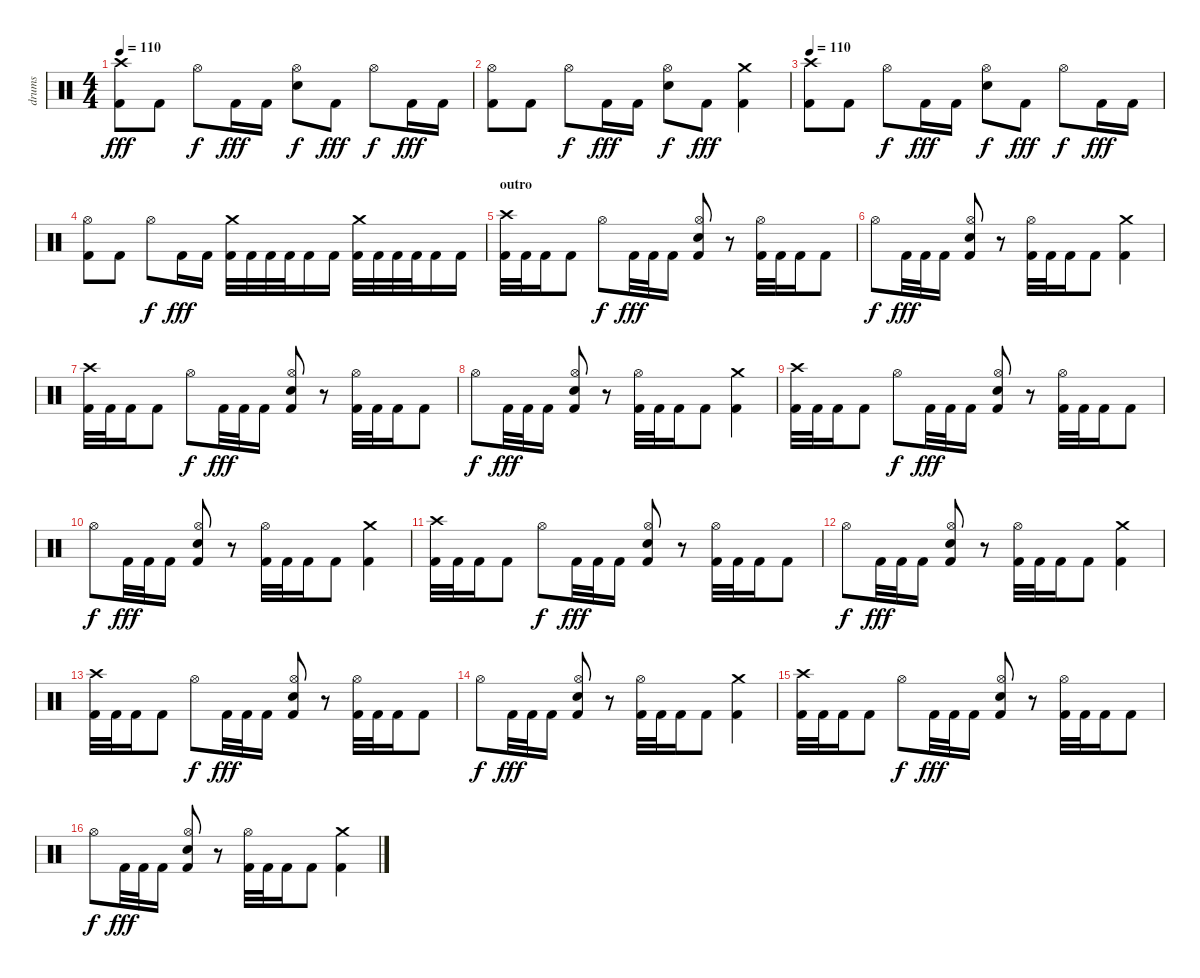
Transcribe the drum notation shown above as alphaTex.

\track ("drums" "drums") {instrument percussion}
\staff {score}
\articulation defaults
\ts (4 4)
\tempo 110
\clef neutral
\ks c
("Crash high (hit)" "Kick (hit) 2").8{dy fff} "Kick (hit) 2".8 "Hi-Hat (open)".8{dy f} "Kick (hit) 2".16{dy fff} "Kick (hit) 2".16 ("Hi-Hat (open)" "Snare (hit) 2").8{dy f} "Kick (hit) 2".8{dy fff} "Hi-Hat (open)".8{dy f} "Kick (hit) 2".16{dy fff} "Kick (hit) 2".16 |
("Hi-Hat (open)" "Kick (hit) 2").8 "Kick (hit) 2".8 "Hi-Hat (open)".8{dy f} "Kick (hit) 2".16{dy fff} "Kick (hit) 2".16 ("Hi-Hat (open)" "Snare (hit) 2").8{dy f} "Kick (hit) 2".8{dy fff} ("Crash medium (hit)" "Kick (hit) 2").4 |
\tempo 110
("Crash high (hit)" "Kick (hit) 2").8 "Kick (hit) 2".8 "Hi-Hat (open)".8{dy f} "Kick (hit) 2".16{dy fff} "Kick (hit) 2".16 ("Hi-Hat (open)" "Snare (hit) 2").8{dy f} "Kick (hit) 2".8{dy fff} "Hi-Hat (open)".8{dy f} "Kick (hit) 2".16{dy fff} "Kick (hit) 2".16 |
("Hi-Hat (open)" "Kick (hit) 2").8 "Kick (hit) 2".8 "Hi-Hat (open)".8{dy f} "Kick (hit) 2".16{dy fff} "Kick (hit) 2".16 ("Crash medium (hit)" "Kick (hit) 2").32 "Kick (hit) 2".32 "Kick (hit) 2".32 "Kick (hit) 2".32 "Kick (hit) 2".16 "Kick (hit) 2".16 ("Crash medium (hit)" "Kick (hit) 2").32 "Kick (hit) 2".32 "Kick (hit) 2".32 "Kick (hit) 2".32 "Kick (hit) 2".16 "Kick (hit) 2".16 |
\section ("" "outro")
("Crash high (hit)" "Kick (hit) 2").32 "Kick (hit) 2".32 "Kick (hit) 2".16 "Kick (hit) 2".8 "Hi-Hat (open)".8{dy f} "Kick (hit) 2".32{dy fff} "Kick (hit) 2".32 "Kick (hit) 2".16 ("Hi-Hat (open)" "Snare (hit) 2" "Kick (hit) 2").8 r.8 ("Hi-Hat (open)" "Kick (hit) 2").32 "Kick (hit) 2".32 "Kick (hit) 2".16 "Kick (hit) 2".8 |
"Hi-Hat (open)".8{dy f} "Kick (hit) 2".32{dy fff} "Kick (hit) 2".32 "Kick (hit) 2".16 ("Hi-Hat (open)" "Snare (hit) 2" "Kick (hit) 2").8 r.8 ("Hi-Hat (open)" "Kick (hit) 2").32 "Kick (hit) 2".32 "Kick (hit) 2".16 "Kick (hit) 2".8 ("Crash medium (hit)" "Kick (hit) 2").4 |
("Crash high (hit)" "Kick (hit) 2").32 "Kick (hit) 2".32 "Kick (hit) 2".16 "Kick (hit) 2".8 "Hi-Hat (open)".8{dy f} "Kick (hit) 2".32{dy fff} "Kick (hit) 2".32 "Kick (hit) 2".16 ("Hi-Hat (open)" "Snare (hit) 2" "Kick (hit) 2").8 r.8 ("Hi-Hat (open)" "Kick (hit) 2").32 "Kick (hit) 2".32 "Kick (hit) 2".16 "Kick (hit) 2".8 |
"Hi-Hat (open)".8{dy f} "Kick (hit) 2".32{dy fff} "Kick (hit) 2".32 "Kick (hit) 2".16 ("Hi-Hat (open)" "Snare (hit) 2" "Kick (hit) 2").8 r.8 ("Hi-Hat (open)" "Kick (hit) 2").32 "Kick (hit) 2".32 "Kick (hit) 2".16 "Kick (hit) 2".8 ("Crash medium (hit)" "Kick (hit) 2").4 |
("Crash high (hit)" "Kick (hit) 2").32 "Kick (hit) 2".32 "Kick (hit) 2".16 "Kick (hit) 2".8 "Hi-Hat (open)".8{dy f} "Kick (hit) 2".32{dy fff} "Kick (hit) 2".32 "Kick (hit) 2".16 ("Hi-Hat (open)" "Snare (hit) 2" "Kick (hit) 2").8 r.8 ("Hi-Hat (open)" "Kick (hit) 2").32 "Kick (hit) 2".32 "Kick (hit) 2".16 "Kick (hit) 2".8 |
"Hi-Hat (open)".8{dy f} "Kick (hit) 2".32{dy fff} "Kick (hit) 2".32 "Kick (hit) 2".16 ("Hi-Hat (open)" "Snare (hit) 2" "Kick (hit) 2").8 r.8 ("Hi-Hat (open)" "Kick (hit) 2").32 "Kick (hit) 2".32 "Kick (hit) 2".16 "Kick (hit) 2".8 ("Crash medium (hit)" "Kick (hit) 2").4 |
("Crash high (hit)" "Kick (hit) 2").32 "Kick (hit) 2".32 "Kick (hit) 2".16 "Kick (hit) 2".8 "Hi-Hat (open)".8{dy f} "Kick (hit) 2".32{dy fff} "Kick (hit) 2".32 "Kick (hit) 2".16 ("Hi-Hat (open)" "Snare (hit) 2" "Kick (hit) 2").8 r.8 ("Hi-Hat (open)" "Kick (hit) 2").32 "Kick (hit) 2".32 "Kick (hit) 2".16 "Kick (hit) 2".8 |
"Hi-Hat (open)".8{dy f} "Kick (hit) 2".32{dy fff} "Kick (hit) 2".32 "Kick (hit) 2".16 ("Hi-Hat (open)" "Snare (hit) 2" "Kick (hit) 2").8 r.8 ("Hi-Hat (open)" "Kick (hit) 2").32 "Kick (hit) 2".32 "Kick (hit) 2".16 "Kick (hit) 2".8 ("Crash medium (hit)" "Kick (hit) 2").4 |
("Crash high (hit)" "Kick (hit) 2").32 "Kick (hit) 2".32 "Kick (hit) 2".16 "Kick (hit) 2".8 "Hi-Hat (open)".8{dy f} "Kick (hit) 2".32{dy fff} "Kick (hit) 2".32 "Kick (hit) 2".16 ("Hi-Hat (open)" "Snare (hit) 2" "Kick (hit) 2").8 r.8 ("Hi-Hat (open)" "Kick (hit) 2").32 "Kick (hit) 2".32 "Kick (hit) 2".16 "Kick (hit) 2".8 |
"Hi-Hat (open)".8{dy f} "Kick (hit) 2".32{dy fff} "Kick (hit) 2".32 "Kick (hit) 2".16 ("Hi-Hat (open)" "Snare (hit) 2" "Kick (hit) 2").8 r.8 ("Hi-Hat (open)" "Kick (hit) 2").32 "Kick (hit) 2".32 "Kick (hit) 2".16 "Kick (hit) 2".8 ("Crash medium (hit)" "Kick (hit) 2").4 |
("Crash high (hit)" "Kick (hit) 2").32 "Kick (hit) 2".32 "Kick (hit) 2".16 "Kick (hit) 2".8 "Hi-Hat (open)".8{dy f} "Kick (hit) 2".32{dy fff} "Kick (hit) 2".32 "Kick (hit) 2".16 ("Hi-Hat (open)" "Snare (hit) 2" "Kick (hit) 2").8 r.8 ("Hi-Hat (open)" "Kick (hit) 2").32 "Kick (hit) 2".32 "Kick (hit) 2".16 "Kick (hit) 2".8 |
"Hi-Hat (open)".8{dy f} "Kick (hit) 2".32{dy fff} "Kick (hit) 2".32 "Kick (hit) 2".16 ("Hi-Hat (open)" "Snare (hit) 2" "Kick (hit) 2").8 r.8 ("Hi-Hat (open)" "Kick (hit) 2").32 "Kick (hit) 2".32 "Kick (hit) 2".16 "Kick (hit) 2".8 ("Crash medium (hit)" "Kick (hit) 2").4
